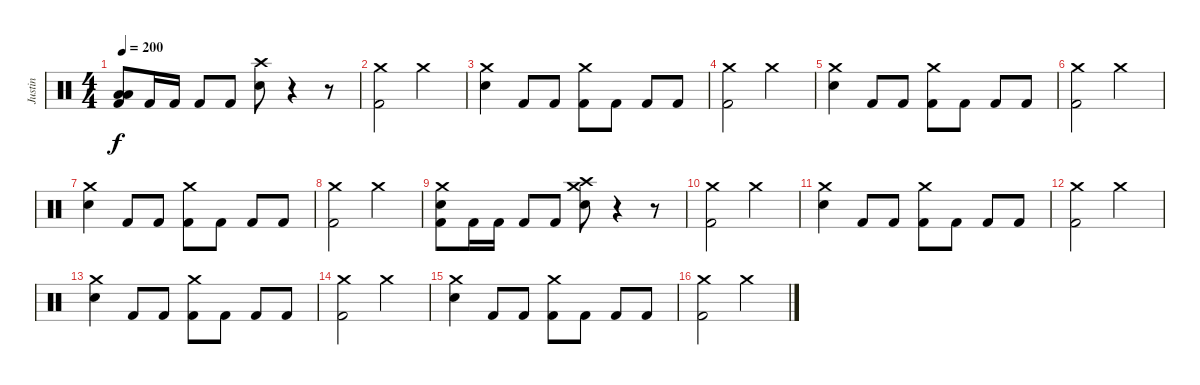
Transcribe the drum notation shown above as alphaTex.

\track ("Justin" "Justin") {instrument percussion}
\staff {score}
\articulation defaults
\ts (4 4)
\tempo 200
\clef neutral
\ks c
("Low Tom (hit)" "Low Floor Tom (hit)" "Kick (hit) 2").8{dy f} "Kick (hit) 2".16 "Kick (hit) 2".16 "Kick (hit) 2".8 "Kick (hit) 2".8 ("Crash high (hit)" "Electric Snare (hit)").8 r.4 r.8 |
("Crash medium (hit)" "Kick (hit) 2").2 "Crash medium (hit)".2 |
("Crash medium (hit)" "Electric Snare (hit)").4 "Kick (hit) 2".8 "Kick (hit) 2".8 ("Crash medium (hit)" "Kick (hit) 2").8 "Kick (hit) 2".8 "Kick (hit) 2".8 "Kick (hit) 2".8 |
("Crash medium (hit)" "Kick (hit) 2").2 "Crash medium (hit)".2 |
("Crash medium (hit)" "Electric Snare (hit)").4 "Kick (hit) 2".8 "Kick (hit) 2".8 ("Crash medium (hit)" "Kick (hit) 2").8 "Kick (hit) 2".8 "Kick (hit) 2".8 "Kick (hit) 2".8 |
("Crash medium (hit)" "Kick (hit) 2").2 "Crash medium (hit)".2 |
("Crash medium (hit)" "Electric Snare (hit)").4 "Kick (hit) 2".8 "Kick (hit) 2".8 ("Crash medium (hit)" "Kick (hit) 2").8 "Kick (hit) 2".8 "Kick (hit) 2".8 "Kick (hit) 2".8 |
("Crash medium (hit)" "Kick (hit) 2").2 "Crash medium (hit)".2 |
("Crash medium (hit)" "Electric Snare (hit)" "Kick (hit) 2").8 "Kick (hit) 2".16 "Kick (hit) 2".16 "Kick (hit) 2".8 "Kick (hit) 2".8 ("Crash medium (hit)" "Crash high (hit)" "Electric Snare (hit)").8 r.4 r.8 |
("Crash medium (hit)" "Kick (hit) 2").2 "Crash medium (hit)".2 |
("Crash medium (hit)" "Electric Snare (hit)").4 "Kick (hit) 2".8 "Kick (hit) 2".8 ("Crash medium (hit)" "Kick (hit) 2").8 "Kick (hit) 2".8 "Kick (hit) 2".8 "Kick (hit) 2".8 |
("Crash medium (hit)" "Kick (hit) 2").2 "Crash medium (hit)".2 |
("Crash medium (hit)" "Electric Snare (hit)").4 "Kick (hit) 2".8 "Kick (hit) 2".8 ("Crash medium (hit)" "Kick (hit) 2").8 "Kick (hit) 2".8 "Kick (hit) 2".8 "Kick (hit) 2".8 |
("Crash medium (hit)" "Kick (hit) 2").2 "Crash medium (hit)".2 |
("Crash medium (hit)" "Electric Snare (hit)").4 "Kick (hit) 2".8 "Kick (hit) 2".8 ("Crash medium (hit)" "Kick (hit) 2").8 "Kick (hit) 2".8 "Kick (hit) 2".8 "Kick (hit) 2".8 |
("Crash medium (hit)" "Kick (hit) 2").2 "Crash medium (hit)".2
